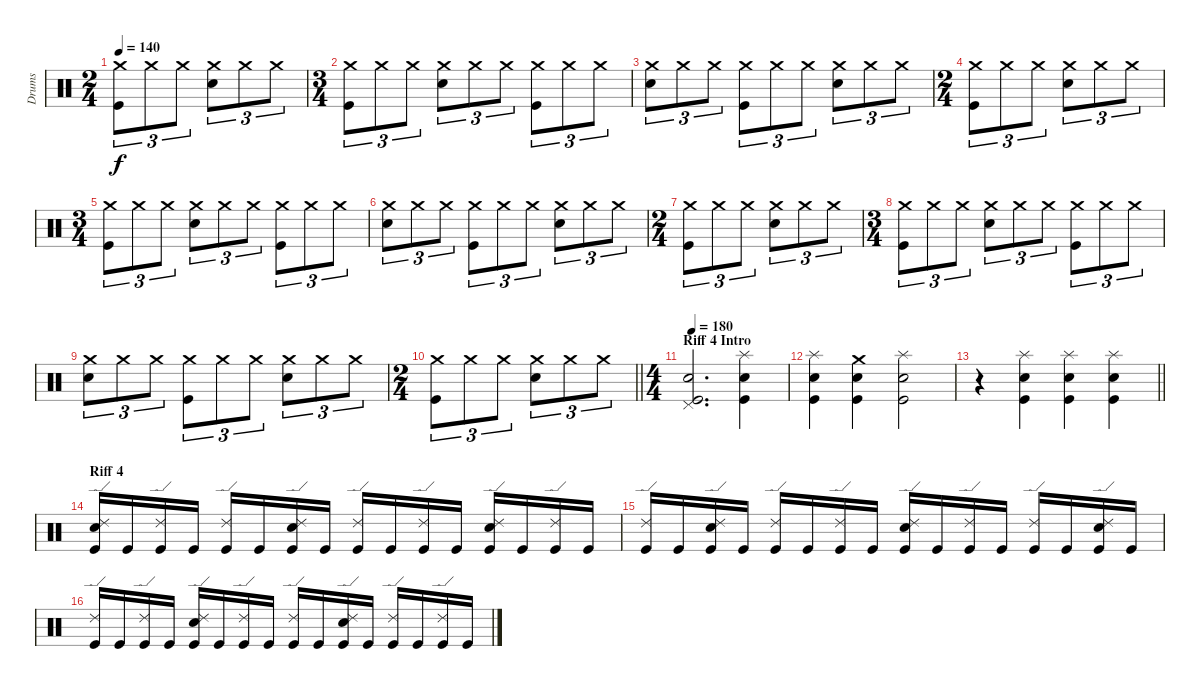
\track ("Drums" "Drums") {instrument percussion}
\staff {score}
\articulation defaults
\ts (2 4)
\tempo 140
\clef neutral
\ks c
("Crash medium (hit)" "Kick (hit)").8{tu (3 2) dy f} "Crash medium (hit)".8{tu (3 2)} "Crash medium (hit)".8{tu (3 2)} ("Crash medium (hit)" "Electric Snare (hit)").8{tu (3 2)} "Crash medium (hit)".8{tu (3 2)} "Crash medium (hit)".8{tu (3 2)} |
\ts (3 4)
("Crash medium (hit)" "Kick (hit)").8{tu (3 2)} "Crash medium (hit)".8{tu (3 2)} "Crash medium (hit)".8{tu (3 2)} ("Crash medium (hit)" "Electric Snare (hit)").8{tu (3 2)} "Crash medium (hit)".8{tu (3 2)} "Crash medium (hit)".8{tu (3 2)} ("Crash medium (hit)" "Kick (hit)").8{tu (3 2)} "Crash medium (hit)".8{tu (3 2)} "Crash medium (hit)".8{tu (3 2)} |
("Crash medium (hit)" "Electric Snare (hit)").8{tu (3 2)} "Crash medium (hit)".8{tu (3 2)} "Crash medium (hit)".8{tu (3 2)} ("Crash medium (hit)" "Kick (hit)").8{tu (3 2)} "Crash medium (hit)".8{tu (3 2)} "Crash medium (hit)".8{tu (3 2)} ("Crash medium (hit)" "Electric Snare (hit)").8{tu (3 2)} "Crash medium (hit)".8{tu (3 2)} "Crash medium (hit)".8{tu (3 2)} |
\ts (2 4)
("Crash medium (hit)" "Kick (hit)").8{tu (3 2)} "Crash medium (hit)".8{tu (3 2)} "Crash medium (hit)".8{tu (3 2)} ("Crash medium (hit)" "Electric Snare (hit)").8{tu (3 2)} "Crash medium (hit)".8{tu (3 2)} "Crash medium (hit)".8{tu (3 2)} |
\ts (3 4)
("Crash medium (hit)" "Kick (hit)").8{tu (3 2)} "Crash medium (hit)".8{tu (3 2)} "Crash medium (hit)".8{tu (3 2)} ("Crash medium (hit)" "Electric Snare (hit)").8{tu (3 2)} "Crash medium (hit)".8{tu (3 2)} "Crash medium (hit)".8{tu (3 2)} ("Crash medium (hit)" "Kick (hit)").8{tu (3 2)} "Crash medium (hit)".8{tu (3 2)} "Crash medium (hit)".8{tu (3 2)} |
("Crash medium (hit)" "Electric Snare (hit)").8{tu (3 2)} "Crash medium (hit)".8{tu (3 2)} "Crash medium (hit)".8{tu (3 2)} ("Crash medium (hit)" "Kick (hit)").8{tu (3 2)} "Crash medium (hit)".8{tu (3 2)} "Crash medium (hit)".8{tu (3 2)} ("Crash medium (hit)" "Electric Snare (hit)").8{tu (3 2)} "Crash medium (hit)".8{tu (3 2)} "Crash medium (hit)".8{tu (3 2)} |
\ts (2 4)
("Crash medium (hit)" "Kick (hit)").8{tu (3 2)} "Crash medium (hit)".8{tu (3 2)} "Crash medium (hit)".8{tu (3 2)} ("Crash medium (hit)" "Electric Snare (hit)").8{tu (3 2)} "Crash medium (hit)".8{tu (3 2)} "Crash medium (hit)".8{tu (3 2)} |
\ts (3 4)
("Crash medium (hit)" "Kick (hit)").8{tu (3 2)} "Crash medium (hit)".8{tu (3 2)} "Crash medium (hit)".8{tu (3 2)} ("Crash medium (hit)" "Electric Snare (hit)").8{tu (3 2)} "Crash medium (hit)".8{tu (3 2)} "Crash medium (hit)".8{tu (3 2)} ("Crash medium (hit)" "Kick (hit)").8{tu (3 2)} "Crash medium (hit)".8{tu (3 2)} "Crash medium (hit)".8{tu (3 2)} |
("Crash medium (hit)" "Electric Snare (hit)").8{tu (3 2)} "Crash medium (hit)".8{tu (3 2)} "Crash medium (hit)".8{tu (3 2)} ("Crash medium (hit)" "Kick (hit)").8{tu (3 2)} "Crash medium (hit)".8{tu (3 2)} "Crash medium (hit)".8{tu (3 2)} ("Crash medium (hit)" "Electric Snare (hit)").8{tu (3 2)} "Crash medium (hit)".8{tu (3 2)} "Crash medium (hit)".8{tu (3 2)} |
\ts (2 4)
\barLineRight lightlight
("Crash medium (hit)" "Kick (hit)").8{tu (3 2)} "Crash medium (hit)".8{tu (3 2)} "Crash medium (hit)".8{tu (3 2)} ("Crash medium (hit)" "Electric Snare (hit)").8{tu (3 2)} "Crash medium (hit)".8{tu (3 2)} "Crash medium (hit)".8{tu (3 2)} |
\ts (4 4)
\section ("" "Riff 4 Intro")
\tempo 180
("Pedal Hi-Hat (hit)" "Electric Snare (hit)" "Kick (hit)").2{d} ("Splash (hit)" "Electric Snare (hit)" "Kick (hit)").4 |
("Splash (hit)" "Electric Snare (hit)" "Kick (hit)").4 ("Crash medium (hit)" "Electric Snare (hit)" "Kick (hit)").4 ("Splash (hit)" "Electric Snare (hit)" "Kick (hit)").2 |
\barLineRight lightlight
r.4 ("Splash (hit)" "Electric Snare (hit)" "Kick (hit)").4 ("Splash (hit)" "Electric Snare (hit)" "Kick (hit)").4 ("Splash (hit)" "Electric Snare (hit)" "Kick (hit)").4 |
\section ("" "Riff 4")
("Ride (edge) 2" "Electric Snare (hit)" "Kick (hit)").16 "Kick (hit)".16 ("Ride (edge) 2" "Kick (hit)").16 "Kick (hit)".16 ("Ride (edge) 2" "Kick (hit)").16 "Kick (hit)".16 ("Ride (edge) 2" "Electric Snare (hit)" "Kick (hit)").16 "Kick (hit)".16 ("Ride (edge) 2" "Kick (hit)").16 "Kick (hit)".16 ("Ride (edge) 2" "Kick (hit)").16 "Kick (hit)".16 ("Ride (edge) 2" "Electric Snare (hit)" "Kick (hit)").16 "Kick (hit)".16 ("Ride (edge) 2" "Kick (hit)").16 "Kick (hit)".16 |
("Ride (edge) 2" "Kick (hit)").16 "Kick (hit)".16 ("Ride (edge) 2" "Electric Snare (hit)" "Kick (hit)").16 "Kick (hit)".16 ("Ride (edge) 2" "Kick (hit)").16 "Kick (hit)".16 ("Ride (edge) 2" "Kick (hit)").16 "Kick (hit)".16 ("Ride (edge) 2" "Electric Snare (hit)" "Kick (hit)").16 "Kick (hit)".16 ("Ride (edge) 2" "Kick (hit)").16 "Kick (hit)".16 ("Ride (edge) 2" "Kick (hit)").16 "Kick (hit)".16 ("Ride (edge) 2" "Electric Snare (hit)" "Kick (hit)").16 "Kick (hit)".16 |
("Ride (edge) 2" "Kick (hit)").16 "Kick (hit)".16 ("Ride (edge) 2" "Kick (hit)").16 "Kick (hit)".16 ("Ride (edge) 2" "Electric Snare (hit)" "Kick (hit)").16 "Kick (hit)".16 ("Ride (edge) 2" "Kick (hit)").16 "Kick (hit)".16 ("Ride (edge) 2" "Kick (hit)").16 "Kick (hit)".16 ("Ride (edge) 2" "Electric Snare (hit)" "Kick (hit)").16 "Kick (hit)".16 ("Ride (edge) 2" "Kick (hit)").16 "Kick (hit)".16 ("Ride (edge) 2" "Kick (hit)").16 "Kick (hit)".16
